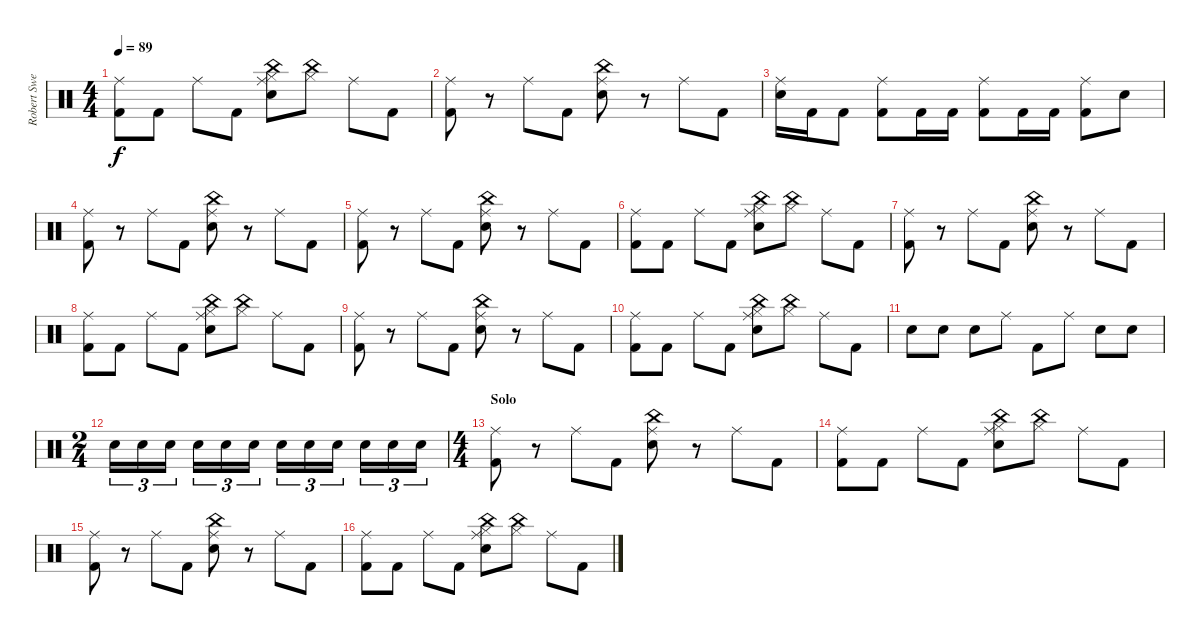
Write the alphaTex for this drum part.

\track ("Robert Sweet" "Robert Swe") {instrument percussion}
\staff {score}
\articulation defaults
\ts (4 4)
\tempo 89
\clef neutral
\ks c
("Ride (middle)" "Kick (hit) 2").8{dy f} "Kick (hit) 2".8 "Ride (middle)".8 "Kick (hit) 2".8 ("Ride (middle)" "China (hit)" "Hi-Hat (closed)" "Electric Snare (hit)").8 ("China (hit)" "Hi-Hat (closed)").8 "Ride (middle)".8 "Kick (hit) 2".8 |
("Ride (middle)" "Kick (hit) 2").8 r.8 "Ride (middle)".8 "Kick (hit) 2".8 ("Ride (middle)" "China (hit)" "Electric Snare (hit)").8 r.8 "Ride (middle)".8 "Kick (hit) 2".8 |
("Ride (middle)" "Electric Snare (hit)").16 "Kick (hit) 2".16 "Kick (hit) 2".8 ("Ride (middle)" "Kick (hit) 2").8 "Kick (hit) 2".16 "Kick (hit) 2".16 ("Ride (middle)" "Kick (hit) 2").8 "Kick (hit) 2".16 "Kick (hit) 2".16 ("Ride (middle)" "Kick (hit) 2").8 "Electric Snare (hit)".8 |
("Ride (middle)" "Kick (hit) 2").8 r.8 "Ride (middle)".8 "Kick (hit) 2".8 ("Ride (middle)" "China (hit)" "Electric Snare (hit)").8 r.8 "Ride (middle)".8 "Kick (hit) 2".8 |
("Ride (middle)" "Kick (hit) 2").8 r.8 "Ride (middle)".8 "Kick (hit) 2".8 ("Ride (middle)" "China (hit)" "Electric Snare (hit)").8 r.8 "Ride (middle)".8 "Kick (hit) 2".8 |
("Ride (middle)" "Kick (hit) 2").8 "Kick (hit) 2".8 "Ride (middle)".8 "Kick (hit) 2".8 ("Ride (middle)" "China (hit)" "Hi-Hat (closed)" "Electric Snare (hit)").8 ("China (hit)" "Hi-Hat (closed)").8 "Ride (middle)".8 "Kick (hit) 2".8 |
("Ride (middle)" "Kick (hit) 2").8 r.8 "Ride (middle)".8 "Kick (hit) 2".8 ("Ride (middle)" "China (hit)" "Electric Snare (hit)").8 r.8 "Ride (middle)".8 "Kick (hit) 2".8 |
("Ride (middle)" "Kick (hit) 2").8 "Kick (hit) 2".8 "Ride (middle)".8 "Kick (hit) 2".8 ("Ride (middle)" "China (hit)" "Hi-Hat (closed)" "Electric Snare (hit)").8 ("China (hit)" "Hi-Hat (closed)").8 "Ride (middle)".8 "Kick (hit) 2".8 |
("Ride (middle)" "Kick (hit) 2").8 r.8 "Ride (middle)".8 "Kick (hit) 2".8 ("Ride (middle)" "China (hit)" "Electric Snare (hit)").8 r.8 "Ride (middle)".8 "Kick (hit) 2".8 |
("Ride (middle)" "Kick (hit) 2").8 "Kick (hit) 2".8 "Ride (middle)".8 "Kick (hit) 2".8 ("Ride (middle)" "China (hit)" "Hi-Hat (closed)" "Electric Snare (hit)").8 ("China (hit)" "Hi-Hat (closed)").8 "Ride (middle)".8 "Kick (hit) 2".8 |
"Electric Snare (hit)".8 "Electric Snare (hit)".8 "Electric Snare (hit)".8 "Ride (middle)".8 "Kick (hit) 2".8 "Ride (middle)".8 "Electric Snare (hit)".8 "Electric Snare (hit)".8 |
\ts (2 4)
"Electric Snare (hit)".16{tu (3 2)} "Electric Snare (hit)".16{tu (3 2)} "Electric Snare (hit)".16{tu (3 2)} "Electric Snare (hit)".16{tu (3 2)} "Electric Snare (hit)".16{tu (3 2)} "Electric Snare (hit)".16{tu (3 2)} "Electric Snare (hit)".16{tu (3 2)} "Electric Snare (hit)".16{tu (3 2)} "Electric Snare (hit)".16{tu (3 2)} "Electric Snare (hit)".16{tu (3 2)} "Electric Snare (hit)".16{tu (3 2)} "Electric Snare (hit)".16{tu (3 2)} |
\ts (4 4)
\section ("" "Solo")
("Ride (middle)" "Kick (hit) 2").8 r.8 "Ride (middle)".8 "Kick (hit) 2".8 ("Ride (middle)" "China (hit)" "Electric Snare (hit)").8 r.8 "Ride (middle)".8 "Kick (hit) 2".8 |
("Ride (middle)" "Kick (hit) 2").8 "Kick (hit) 2".8 "Ride (middle)".8 "Kick (hit) 2".8 ("Ride (middle)" "China (hit)" "Hi-Hat (closed)" "Electric Snare (hit)").8 ("China (hit)" "Hi-Hat (closed)").8 "Ride (middle)".8 "Kick (hit) 2".8 |
("Ride (middle)" "Kick (hit) 2").8 r.8 "Ride (middle)".8 "Kick (hit) 2".8 ("Ride (middle)" "China (hit)" "Electric Snare (hit)").8 r.8 "Ride (middle)".8 "Kick (hit) 2".8 |
("Ride (middle)" "Kick (hit) 2").8 "Kick (hit) 2".8 "Ride (middle)".8 "Kick (hit) 2".8 ("Ride (middle)" "China (hit)" "Hi-Hat (closed)" "Electric Snare (hit)").8 ("China (hit)" "Hi-Hat (closed)").8 "Ride (middle)".8 "Kick (hit) 2".8
